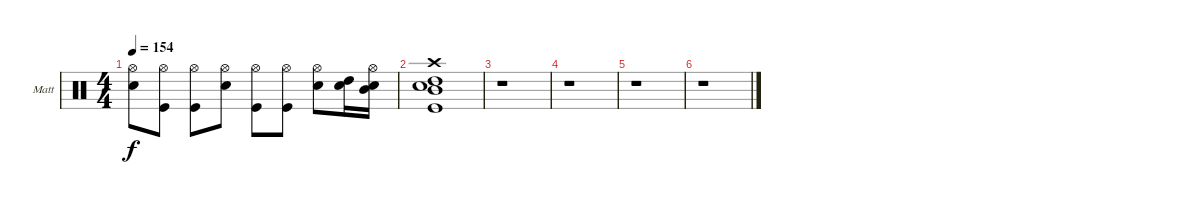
\defaultSystemsLayout 4
\bracketExtendMode groupsimilarinstruments
\firstSystemTrackNameOrientation horizontal
\otherSystemsTrackNameOrientation horizontal
\track ("Matt Helders" "Matt") {instrument percussion}
\staff {score}
\articulation defaults
\ts (4 4)
\tempo 154
\clef neutral
\ks c
("Snare (hit) 2" "Hi-Hat (open)").8{dy f} ("Hi-Hat (open)" "Kick (hit)").8 ("Hi-Hat (open)" "Kick (hit)").8 ("Hi-Hat (open)" "Snare (hit) 2").8 ("Hi-Hat (open)" "Kick (hit)").8 ("Hi-Hat (open)" "Kick (hit)").8 ("Hi-Hat (open)" "Snare (hit) 2").8 ("Snare (hit) 2" "High Tom (hit)").16 ("Hi-Hat (open)" "Snare (hit) 2" "Mid Tom (hit)").16 |
("Kick (hit)" "Snare (hit) 2" "High Tom (hit)" "Mid Tom (hit)" "Crash high (hit)").1 |
r.1 |
r.1 |
r.1 |
r.1
